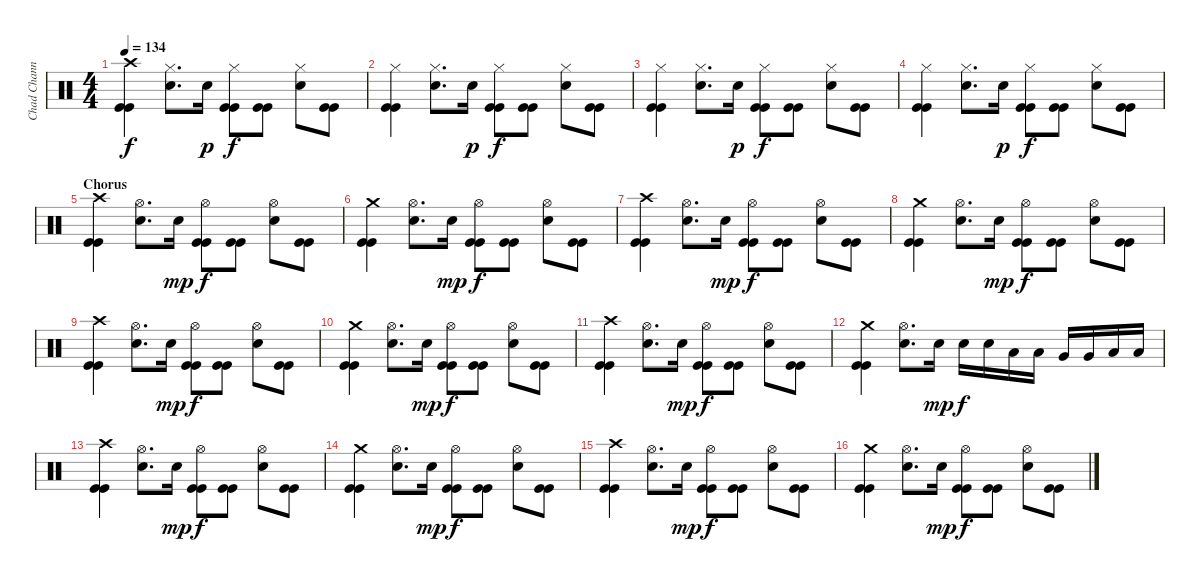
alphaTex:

\track ("Chad Channing" "Chad Chann") {instrument percussion}
\staff {score}
\articulation defaults
\ts (4 4)
\tempo 134
\clef neutral
\ks c
("Crash high (hit)" "Kick (hit)" "Kick (hit)").4{dy f} ("Hi-Hat (closed)" "Electric Snare (hit)").8{d} "Electric Snare (hit)".16{dy p} ("Hi-Hat (closed)" "Kick (hit)" "Kick (hit)").8{dy f} ("Kick (hit)" "Kick (hit)").8 ("Hi-Hat (closed)" "Electric Snare (hit)").8 ("Kick (hit)" "Kick (hit)").8 |
("Hi-Hat (closed)" "Kick (hit)" "Kick (hit)").4 ("Hi-Hat (closed)" "Electric Snare (hit)").8{d} "Electric Snare (hit)".16{dy p} ("Hi-Hat (closed)" "Kick (hit)" "Kick (hit)").8{dy f} ("Kick (hit)" "Kick (hit)").8 ("Hi-Hat (closed)" "Electric Snare (hit)").8 ("Kick (hit)" "Kick (hit)").8 |
("Hi-Hat (closed)" "Kick (hit)" "Kick (hit)").4 ("Hi-Hat (closed)" "Electric Snare (hit)").8{d} "Electric Snare (hit)".16{dy p} ("Hi-Hat (closed)" "Kick (hit)" "Kick (hit)").8{dy f} ("Kick (hit)" "Kick (hit)").8 ("Hi-Hat (closed)" "Electric Snare (hit)").8 ("Kick (hit)" "Kick (hit)").8 |
("Hi-Hat (closed)" "Kick (hit)" "Kick (hit)").4 ("Hi-Hat (closed)" "Electric Snare (hit)").8{d} "Electric Snare (hit)".16{dy p} ("Hi-Hat (closed)" "Kick (hit)" "Kick (hit)").8{dy f} ("Kick (hit)" "Kick (hit)").8 ("Hi-Hat (closed)" "Electric Snare (hit)").8 ("Kick (hit)" "Kick (hit)").8 |
\section ("" "Chorus")
("Crash high (hit)" "Kick (hit)" "Kick (hit)").4 ("Hi-Hat (open)" "Electric Snare (hit)").8{d} "Electric Snare (hit)".16{dy mp} ("Hi-Hat (open)" "Kick (hit)" "Kick (hit)").8{dy f} ("Kick (hit)" "Kick (hit)").8 ("Hi-Hat (open)" "Electric Snare (hit)").8 ("Kick (hit)" "Kick (hit)").8 |
("Crash medium (hit)" "Kick (hit)" "Kick (hit)").4 ("Hi-Hat (open)" "Electric Snare (hit)").8{d} "Electric Snare (hit)".16{dy mp} ("Hi-Hat (open)" "Kick (hit)" "Kick (hit)").8{dy f} ("Kick (hit)" "Kick (hit)").8 ("Hi-Hat (open)" "Electric Snare (hit)").8 ("Kick (hit)" "Kick (hit)").8 |
("Crash high (hit)" "Kick (hit)" "Kick (hit)").4 ("Hi-Hat (open)" "Electric Snare (hit)").8{d} "Electric Snare (hit)".16{dy mp} ("Hi-Hat (open)" "Kick (hit)" "Kick (hit)").8{dy f} ("Kick (hit)" "Kick (hit)").8 ("Hi-Hat (open)" "Electric Snare (hit)").8 ("Kick (hit)" "Kick (hit)").8 |
("Crash medium (hit)" "Kick (hit)" "Kick (hit)").4 ("Hi-Hat (open)" "Electric Snare (hit)").8{d} "Electric Snare (hit)".16{dy mp} ("Hi-Hat (open)" "Kick (hit)" "Kick (hit)").8{dy f} ("Kick (hit)" "Kick (hit)").8 ("Hi-Hat (open)" "Electric Snare (hit)").8 ("Kick (hit)" "Kick (hit)").8 |
("Crash high (hit)" "Kick (hit)" "Kick (hit)").4 ("Hi-Hat (open)" "Electric Snare (hit)").8{d} "Electric Snare (hit)".16{dy mp} ("Hi-Hat (open)" "Kick (hit)" "Kick (hit)").8{dy f} ("Kick (hit)" "Kick (hit)").8 ("Hi-Hat (open)" "Electric Snare (hit)").8 ("Kick (hit)" "Kick (hit)").8 |
("Crash medium (hit)" "Kick (hit)" "Kick (hit)").4 ("Hi-Hat (open)" "Electric Snare (hit)").8{d} "Electric Snare (hit)".16{dy mp} ("Hi-Hat (open)" "Kick (hit)" "Kick (hit)").8{dy f} ("Kick (hit)" "Kick (hit)").8 ("Hi-Hat (open)" "Electric Snare (hit)").8 ("Kick (hit)" "Kick (hit)").8 |
("Crash high (hit)" "Kick (hit)" "Kick (hit)").4 ("Hi-Hat (open)" "Electric Snare (hit)").8{d} "Electric Snare (hit)".16{dy mp} ("Hi-Hat (open)" "Kick (hit)" "Kick (hit)").8{dy f} ("Kick (hit)" "Kick (hit)").8 ("Hi-Hat (open)" "Electric Snare (hit)").8 ("Kick (hit)" "Kick (hit)").8 |
("Crash medium (hit)" "Kick (hit)" "Kick (hit)").4 ("Hi-Hat (open)" "Electric Snare (hit)").8{d} "Electric Snare (hit)".16{dy mp} "Electric Snare (hit)".16{dy f} "Electric Snare (hit)".16 "Low Tom (hit)".16 "Low Tom (hit)".16 "Very Low Tom (hit)".16 "Very Low Tom (hit)".16 "Low Floor Tom (hit)".16 "Low Floor Tom (hit)".16 |
("Crash high (hit)" "Kick (hit)" "Kick (hit)").4 ("Hi-Hat (open)" "Electric Snare (hit)").8{d} "Electric Snare (hit)".16{dy mp} ("Hi-Hat (open)" "Kick (hit)" "Kick (hit)").8{dy f} ("Kick (hit)" "Kick (hit)").8 ("Hi-Hat (open)" "Electric Snare (hit)").8 ("Kick (hit)" "Kick (hit)").8 |
("Crash medium (hit)" "Kick (hit)" "Kick (hit)").4 ("Hi-Hat (open)" "Electric Snare (hit)").8{d} "Electric Snare (hit)".16{dy mp} ("Hi-Hat (open)" "Kick (hit)" "Kick (hit)").8{dy f} ("Kick (hit)" "Kick (hit)").8 ("Hi-Hat (open)" "Electric Snare (hit)").8 ("Kick (hit)" "Kick (hit)").8 |
("Crash high (hit)" "Kick (hit)" "Kick (hit)").4 ("Hi-Hat (open)" "Electric Snare (hit)").8{d} "Electric Snare (hit)".16{dy mp} ("Hi-Hat (open)" "Kick (hit)" "Kick (hit)").8{dy f} ("Kick (hit)" "Kick (hit)").8 ("Hi-Hat (open)" "Electric Snare (hit)").8 ("Kick (hit)" "Kick (hit)").8 |
("Crash medium (hit)" "Kick (hit)" "Kick (hit)").4 ("Hi-Hat (open)" "Electric Snare (hit)").8{d} "Electric Snare (hit)".16{dy mp} ("Hi-Hat (open)" "Kick (hit)" "Kick (hit)").8{dy f} ("Kick (hit)" "Kick (hit)").8 ("Hi-Hat (open)" "Electric Snare (hit)").8 ("Kick (hit)" "Kick (hit)").8
